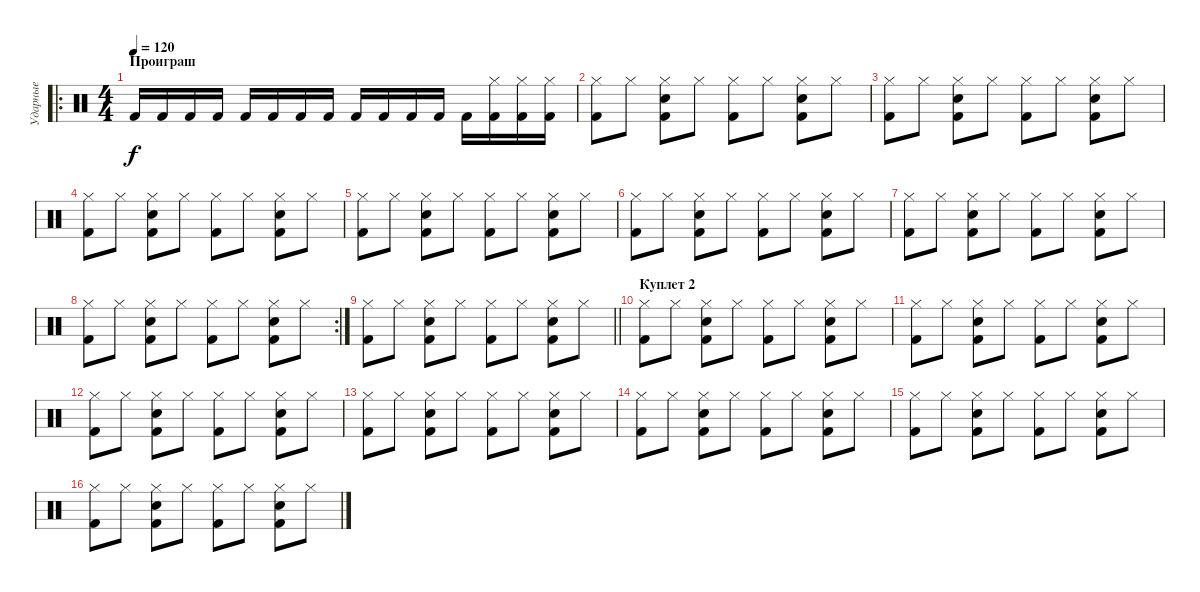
\track ("Ударные" "Ударные") {instrument percussion}
\staff {score}
\articulation defaults
\ro
\ts (4 4)
\section ("" "Проиграш")
\tempo 120
\clef neutral
\ks c "Kick (hit) 2".16{dy f} "Kick (hit) 2".16 "Kick (hit) 2".16 "Kick (hit) 2".16 "Kick (hit) 2".16 "Kick (hit) 2".16 "Kick (hit) 2".16 "Kick (hit) 2".16 "Kick (hit) 2".16 "Kick (hit) 2".16 "Kick (hit) 2".16 "Kick (hit) 2".16 "Kick (hit) 2".16
("Kick (hit) 2" "Hi-Hat (closed)").16 ("Kick (hit) 2" "Hi-Hat (closed)").16 ("Kick (hit) 2" "Hi-Hat (closed)").16 |
("Kick (hit) 2" "Hi-Hat (closed)").8 "Hi-Hat (closed)".8 ("Kick (hit) 2" "Snare (hit) 2" "Hi-Hat (closed)").8 "Hi-Hat (closed)".8 ("Kick (hit) 2" "Hi-Hat (closed)").8 "Hi-Hat (closed)".8 ("Kick (hit) 2" "Snare (hit) 2" "Hi-Hat (closed)").8 "Hi-Hat (closed)".8 |
("Kick (hit) 2" "Hi-Hat (closed)").8 "Hi-Hat (closed)".8 ("Kick (hit) 2" "Snare (hit) 2" "Hi-Hat (closed)").8 "Hi-Hat (closed)".8 ("Kick (hit) 2" "Hi-Hat (closed)").8 "Hi-Hat (closed)".8 ("Kick (hit) 2" "Snare (hit) 2" "Hi-Hat (closed)").8 "Hi-Hat (closed)".8 |
("Kick (hit) 2" "Hi-Hat (closed)").8 "Hi-Hat (closed)".8 ("Kick (hit) 2" "Snare (hit) 2" "Hi-Hat (closed)").8 "Hi-Hat (closed)".8 ("Kick (hit) 2" "Hi-Hat (closed)").8 "Hi-Hat (closed)".8 ("Kick (hit) 2" "Snare (hit) 2" "Hi-Hat (closed)").8 "Hi-Hat (closed)".8 |
("Kick (hit) 2" "Hi-Hat (closed)").8 "Hi-Hat (closed)".8 ("Kick (hit) 2" "Snare (hit) 2" "Hi-Hat (closed)").8 "Hi-Hat (closed)".8 ("Kick (hit) 2" "Hi-Hat (closed)").8 "Hi-Hat (closed)".8 ("Kick (hit) 2" "Snare (hit) 2" "Hi-Hat (closed)").8 "Hi-Hat (closed)".8 |
("Kick (hit) 2" "Hi-Hat (closed)").8 "Hi-Hat (closed)".8 ("Kick (hit) 2" "Snare (hit) 2" "Hi-Hat (closed)").8 "Hi-Hat (closed)".8 ("Kick (hit) 2" "Hi-Hat (closed)").8 "Hi-Hat (closed)".8 ("Kick (hit) 2" "Snare (hit) 2" "Hi-Hat (closed)").8 "Hi-Hat (closed)".8 |
("Kick (hit) 2" "Hi-Hat (closed)").8 "Hi-Hat (closed)".8 ("Kick (hit) 2" "Snare (hit) 2" "Hi-Hat (closed)").8 "Hi-Hat (closed)".8 ("Kick (hit) 2" "Hi-Hat (closed)").8 "Hi-Hat (closed)".8 ("Kick (hit) 2" "Snare (hit) 2" "Hi-Hat (closed)").8 "Hi-Hat (closed)".8 |
\rc 2
("Kick (hit) 2" "Hi-Hat (closed)").8 "Hi-Hat (closed)".8 ("Kick (hit) 2" "Snare (hit) 2" "Hi-Hat (closed)").8 "Hi-Hat (closed)".8 ("Kick (hit) 2" "Hi-Hat (closed)").8 "Hi-Hat (closed)".8 ("Kick (hit) 2" "Snare (hit) 2" "Hi-Hat (closed)").8 "Hi-Hat (closed)".8 |
\barLineRight lightlight
("Kick (hit) 2" "Hi-Hat (closed)").8 "Hi-Hat (closed)".8 ("Kick (hit) 2" "Snare (hit) 2" "Hi-Hat (closed)").8 "Hi-Hat (closed)".8 ("Kick (hit) 2" "Hi-Hat (closed)").8 "Hi-Hat (closed)".8 ("Kick (hit) 2" "Snare (hit) 2" "Hi-Hat (closed)").8 "Hi-Hat (closed)".8 |
\section ("" "Куплет 2")
("Kick (hit) 2" "Hi-Hat (closed)").8 "Hi-Hat (closed)".8 ("Kick (hit) 2" "Snare (hit) 2" "Hi-Hat (closed)").8 "Hi-Hat (closed)".8 ("Kick (hit) 2" "Hi-Hat (closed)").8 "Hi-Hat (closed)".8 ("Kick (hit) 2" "Snare (hit) 2" "Hi-Hat (closed)").8 "Hi-Hat (closed)".8 |
("Kick (hit) 2" "Hi-Hat (closed)").8 "Hi-Hat (closed)".8 ("Kick (hit) 2" "Snare (hit) 2" "Hi-Hat (closed)").8 "Hi-Hat (closed)".8 ("Kick (hit) 2" "Hi-Hat (closed)").8 "Hi-Hat (closed)".8 ("Kick (hit) 2" "Snare (hit) 2" "Hi-Hat (closed)").8 "Hi-Hat (closed)".8 |
("Kick (hit) 2" "Hi-Hat (closed)").8 "Hi-Hat (closed)".8 ("Kick (hit) 2" "Snare (hit) 2" "Hi-Hat (closed)").8 "Hi-Hat (closed)".8 ("Kick (hit) 2" "Hi-Hat (closed)").8 "Hi-Hat (closed)".8 ("Kick (hit) 2" "Snare (hit) 2" "Hi-Hat (closed)").8 "Hi-Hat (closed)".8 |
("Kick (hit) 2" "Hi-Hat (closed)").8 "Hi-Hat (closed)".8 ("Kick (hit) 2" "Snare (hit) 2" "Hi-Hat (closed)").8 "Hi-Hat (closed)".8 ("Kick (hit) 2" "Hi-Hat (closed)").8 "Hi-Hat (closed)".8 ("Kick (hit) 2" "Snare (hit) 2" "Hi-Hat (closed)").8 "Hi-Hat (closed)".8 |
("Kick (hit) 2" "Hi-Hat (closed)").8 "Hi-Hat (closed)".8 ("Kick (hit) 2" "Snare (hit) 2" "Hi-Hat (closed)").8 "Hi-Hat (closed)".8 ("Kick (hit) 2" "Hi-Hat (closed)").8 "Hi-Hat (closed)".8 ("Kick (hit) 2" "Snare (hit) 2" "Hi-Hat (closed)").8 "Hi-Hat (closed)".8 |
("Kick (hit) 2" "Hi-Hat (closed)").8 "Hi-Hat (closed)".8 ("Kick (hit) 2" "Snare (hit) 2" "Hi-Hat (closed)").8 "Hi-Hat (closed)".8 ("Kick (hit) 2" "Hi-Hat (closed)").8 "Hi-Hat (closed)".8 ("Kick (hit) 2" "Snare (hit) 2" "Hi-Hat (closed)").8 "Hi-Hat (closed)".8 |
("Kick (hit) 2" "Hi-Hat (closed)").8 "Hi-Hat (closed)".8 ("Kick (hit) 2" "Snare (hit) 2" "Hi-Hat (closed)").8 "Hi-Hat (closed)".8 ("Kick (hit) 2" "Hi-Hat (closed)").8 "Hi-Hat (closed)".8 ("Kick (hit) 2" "Snare (hit) 2" "Hi-Hat (closed)").8 "Hi-Hat (closed)".8
